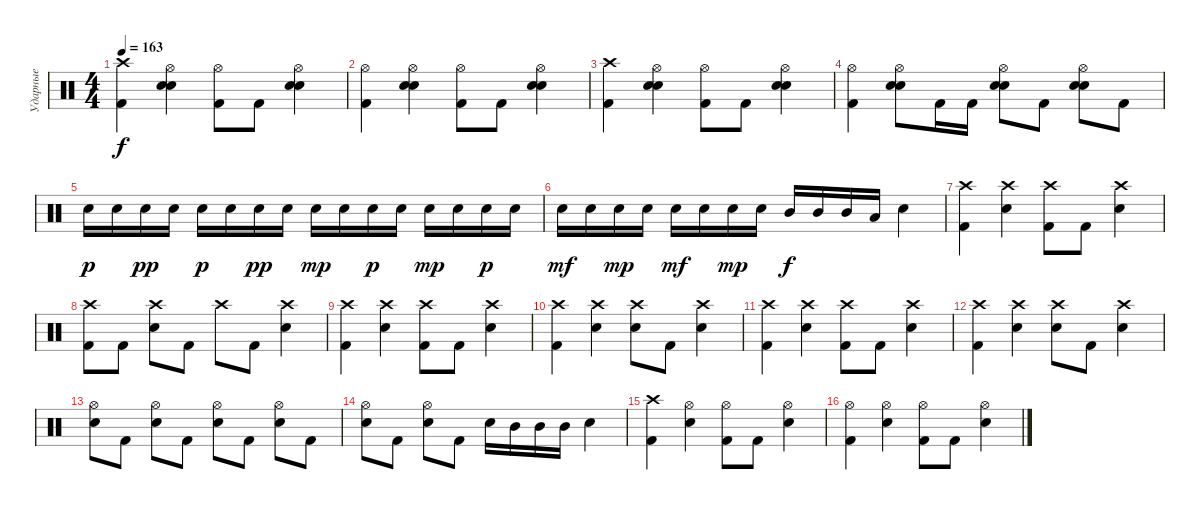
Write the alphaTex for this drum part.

\track ("Ударные" "Ударные") {instrument percussion}
\staff {score}
\articulation defaults
\ts (4 4)
\tempo 163
\clef neutral
\ks c
("Kick (hit) 2" "Crash high (hit)").4{dy f} ("Electric Snare (hit)" "Snare (hit) 2" "Hi-Hat (open)").4 ("Kick (hit) 2" "Hi-Hat (open)").8 "Kick (hit) 2".8 ("Electric Snare (hit)" "Snare (hit) 2" "Hi-Hat (open)").4 |
("Kick (hit) 2" "Hi-Hat (open)").4 ("Electric Snare (hit)" "Snare (hit) 2" "Hi-Hat (open)").4 ("Kick (hit) 2" "Hi-Hat (open)").8 "Kick (hit) 2".8 ("Electric Snare (hit)" "Snare (hit) 2" "Hi-Hat (open)").4 |
("Kick (hit) 2" "Crash high (hit)").4 ("Electric Snare (hit)" "Snare (hit) 2" "Hi-Hat (open)").4 ("Kick (hit) 2" "Hi-Hat (open)").8 "Kick (hit) 2".8 ("Electric Snare (hit)" "Snare (hit) 2" "Hi-Hat (open)").4 |
("Kick (hit) 2" "Hi-Hat (open)").4 ("Electric Snare (hit)" "Snare (hit) 2" "Hi-Hat (open)").8 "Kick (hit) 2".16 "Kick (hit) 2".16 ("Electric Snare (hit)" "Snare (hit) 2" "Hi-Hat (open)").8 "Kick (hit) 2".8 ("Electric Snare (hit)" "Snare (hit) 2" "Hi-Hat (open)").8 "Kick (hit) 2".8 |
"Electric Snare (hit)".16{dy p} "Electric Snare (hit)".16 "Electric Snare (hit)".16{dy pp} "Electric Snare (hit)".16 "Electric Snare (hit)".16{dy p} "Electric Snare (hit)".16 "Electric Snare (hit)".16{dy pp} "Electric Snare (hit)".16 "Electric Snare (hit)".16{dy mp} "Electric Snare (hit)".16 "Electric Snare (hit)".16{dy p} "Electric Snare (hit)".16 "Electric Snare (hit)".16{dy mp} "Electric Snare (hit)".16 "Electric Snare (hit)".16{dy p} "Electric Snare (hit)".16 |
"Electric Snare (hit)".16{dy mf} "Electric Snare (hit)".16 "Electric Snare (hit)".16{dy mp} "Electric Snare (hit)".16 "Electric Snare (hit)".16{dy mf} "Electric Snare (hit)".16 "Electric Snare (hit)".16{dy mp} "Electric Snare (hit)".16 "Mid Tom (hit)".16{dy f} "Mid Tom (hit)".16 "Mid Tom (hit)".16 "Low Tom (hit)".16 "Electric Snare (hit)".4 |
("Kick (hit) 2" "Crash high (hit)").4 ("Snare (hit) 2" "Crash high (hit)").4 ("Kick (hit) 2" "Crash high (hit)").8 "Kick (hit) 2".8 ("Snare (hit) 2" "Crash high (hit)").4 |
("Kick (hit) 2" "Crash high (hit)").8 "Kick (hit) 2".8 ("Snare (hit) 2" "Crash high (hit)").8 "Kick (hit) 2".8 "Crash high (hit)".8 "Kick (hit) 2".8 ("Snare (hit) 2" "Crash high (hit)").4 |
("Kick (hit) 2" "Crash high (hit)").4 ("Snare (hit) 2" "Crash high (hit)").4 ("Kick (hit) 2" "Crash high (hit)").8 "Kick (hit) 2".8 ("Snare (hit) 2" "Crash high (hit)").4 |
("Kick (hit) 2" "Crash high (hit)").4 ("Snare (hit) 2" "Crash high (hit)").4 ("Snare (hit) 2" "Crash high (hit)").8 "Kick (hit) 2".8 ("Snare (hit) 2" "Crash high (hit)").4 |
("Kick (hit) 2" "Crash high (hit)").4 ("Snare (hit) 2" "Crash high (hit)").4 ("Kick (hit) 2" "Crash high (hit)").8 "Kick (hit) 2".8 ("Snare (hit) 2" "Crash high (hit)").4 |
("Kick (hit) 2" "Crash high (hit)").4 ("Snare (hit) 2" "Crash high (hit)").4 ("Snare (hit) 2" "Crash high (hit)").8 "Kick (hit) 2".8 ("Snare (hit) 2" "Crash high (hit)").4 |
("Snare (hit) 2" "Hi-Hat (open)").8 "Kick (hit) 2".8 ("Snare (hit) 2" "Hi-Hat (open)").8 "Kick (hit) 2".8 ("Snare (hit) 2" "Hi-Hat (open)").8 "Kick (hit) 2".8 ("Snare (hit) 2" "Hi-Hat (open)").8 "Kick (hit) 2".8 |
("Snare (hit) 2" "Hi-Hat (open)").8 "Kick (hit) 2".8 ("Snare (hit) 2" "Hi-Hat (open)").8 "Kick (hit) 2".8 "Electric Snare (hit)".16 "Mid Tom (hit)".16 "Mid Tom (hit)".16 "Mid Tom (hit)".16 "Electric Snare (hit)".4 |
("Kick (hit) 2" "Crash high (hit)").4 ("Snare (hit) 2" "Hi-Hat (open)").4 ("Kick (hit) 2" "Hi-Hat (open)").8 "Kick (hit) 2".8 ("Snare (hit) 2" "Hi-Hat (open)").4 |
("Kick (hit) 2" "Hi-Hat (open)").4 ("Snare (hit) 2" "Hi-Hat (open)").4 ("Kick (hit) 2" "Hi-Hat (open)").8 "Kick (hit) 2".8 ("Snare (hit) 2" "Hi-Hat (open)").4
